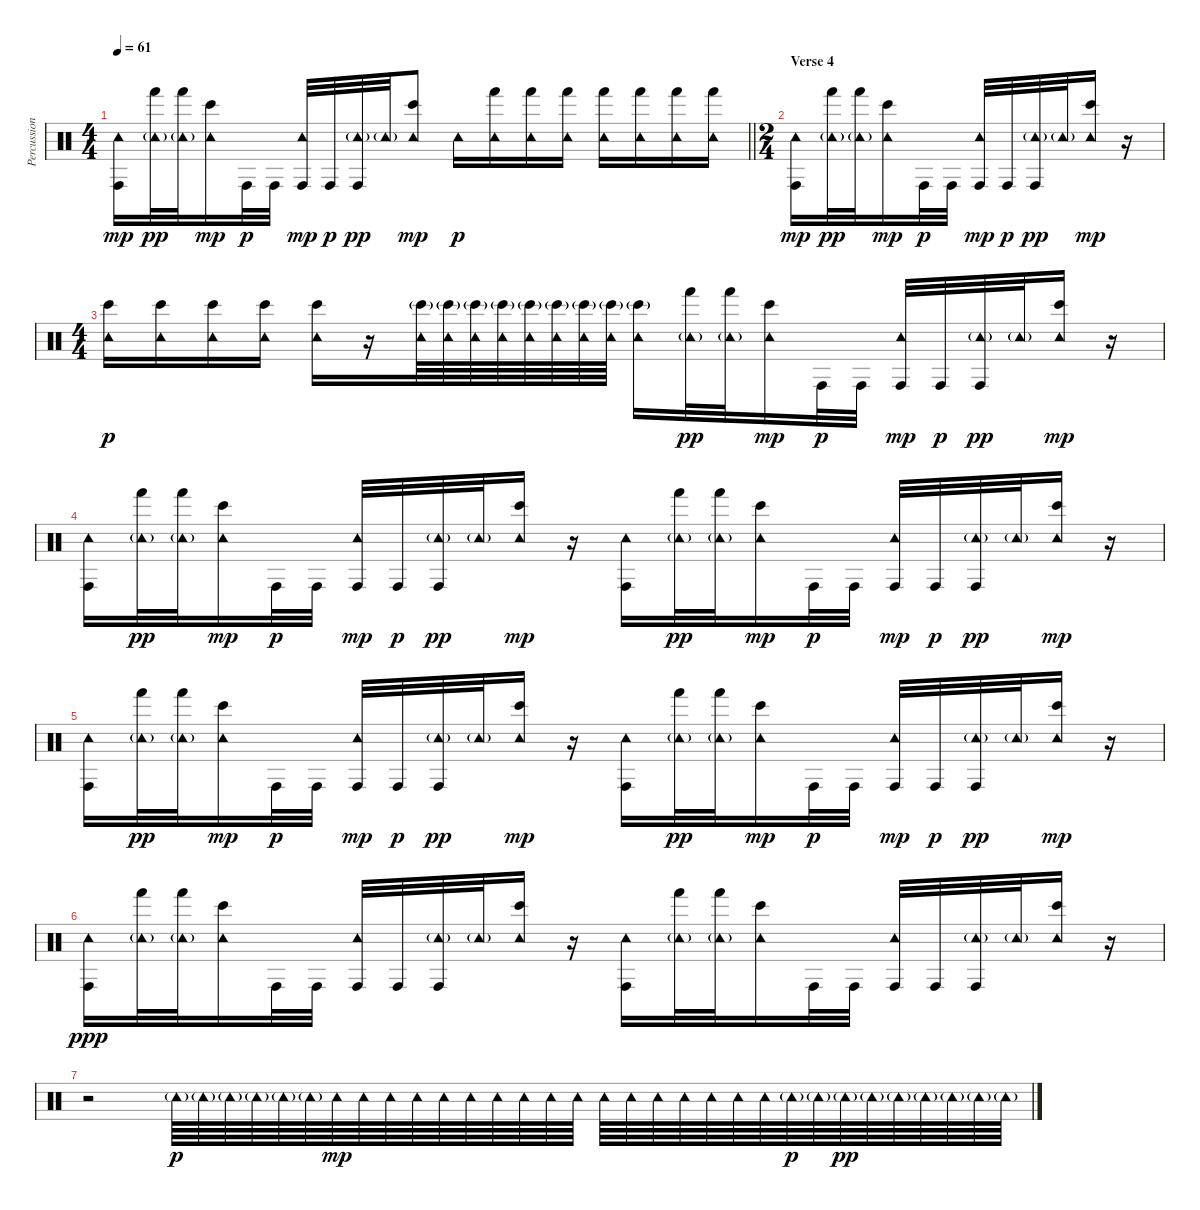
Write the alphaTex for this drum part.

\track ("Percussion 2" "Percussion") {instrument percussion}
\staff {score}
\articulation defaults
\ts (4 4)
\tempo 61
\clef neutral
\barLineRight lightlight
\ks c
("Conga high (hit)" "Tambourine (hit)").16{dy mp} ("Hand (hit)" "Tambourine (hit)"{g}).32{dy pp} ("Hand (hit)" "Tambourine (hit)"{g}).32 ("Bongo High (hit)" "Tambourine (hit)").16{dy mp} "Conga high (hit)".32{dy p} "Conga high (hit)".32 ("Conga high (hit)" "Tambourine (hit)").32{dy mp} "Conga high (hit)".32{dy p} ("Conga high (hit)" "Tambourine (hit)"{g}).32{dy pp} "Tambourine (hit)"{g}.32 ("Bongo High (hit)" "Tambourine (hit)").8{dy mp} "Tambourine (hit)".16{dy p} ("Hand (hit)" "Tambourine (hit)").16 ("Hand (hit)" "Tambourine (hit)").16 ("Hand (hit)" "Tambourine (hit)").16 ("Hand (hit)" "Tambourine (hit)").16 ("Hand (hit)" "Tambourine (hit)").16 ("Hand (hit)" "Tambourine (hit)").16 ("Hand (hit)" "Tambourine (hit)").16 |
\ts (2 4)
\section ("" "Verse 4")
("Conga high (hit)" "Tambourine (hit)").16{dy mp} ("Hand (hit)" "Tambourine (hit)"{g}).32{dy pp} ("Hand (hit)" "Tambourine (hit)"{g}).32 ("Bongo High (hit)" "Tambourine (hit)").16{dy mp} "Conga high (hit)".32{dy p} "Conga high (hit)".32 ("Conga high (hit)" "Tambourine (hit)").32{dy mp} "Conga high (hit)".32{dy p} ("Conga high (hit)" "Tambourine (hit)"{g}).32{dy pp} "Tambourine (hit)"{g}.32 ("Bongo High (hit)" "Tambourine (hit)").16{dy mp} r.16 |
\ts (4 4)
("Bongo High (hit)" "Tambourine (hit)").16{dy p} ("Bongo High (hit)" "Tambourine (hit)").16 ("Bongo High (hit)" "Tambourine (hit)").16 ("Bongo High (hit)" "Tambourine (hit)").16 ("Bongo High (hit)" "Tambourine (hit)").16 r.16 ("Bongo High (hit)"{g} "Tambourine (hit)").64 ("Bongo High (hit)"{g} "Tambourine (hit)").64 ("Bongo High (hit)"{g} "Tambourine (hit)").64 ("Bongo High (hit)"{g} "Tambourine (hit)").64 ("Bongo High (hit)"{g} "Tambourine (hit)").64 ("Bongo High (hit)"{g} "Tambourine (hit)").64 ("Bongo High (hit)"{g} "Tambourine (hit)").64 ("Bongo High (hit)"{g} "Tambourine (hit)").64 ("Bongo High (hit)"{g} "Tambourine (hit)").16 ("Hand (hit)" "Tambourine (hit)"{g}).32{dy pp} ("Hand (hit)" "Tambourine (hit)"{g}).32 ("Bongo High (hit)" "Tambourine (hit)").16{dy mp} "Conga high (hit)".32{dy p} "Conga high (hit)".32 ("Conga high (hit)" "Tambourine (hit)").32{dy mp} "Conga high (hit)".32{dy p} ("Conga high (hit)" "Tambourine (hit)"{g}).32{dy pp} "Tambourine (hit)"{g}.32 ("Bongo High (hit)" "Tambourine (hit)").16{dy mp} r.16 |
("Conga high (hit)" "Tambourine (hit)").16 ("Hand (hit)" "Tambourine (hit)"{g}).32{dy pp} ("Hand (hit)" "Tambourine (hit)"{g}).32 ("Bongo High (hit)" "Tambourine (hit)").16{dy mp} "Conga high (hit)".32{dy p} "Conga high (hit)".32 ("Conga high (hit)" "Tambourine (hit)").32{dy mp} "Conga high (hit)".32{dy p} ("Conga high (hit)" "Tambourine (hit)"{g}).32{dy pp} "Tambourine (hit)"{g}.32 ("Bongo High (hit)" "Tambourine (hit)").16{dy mp} r.16 ("Conga high (hit)" "Tambourine (hit)").16 ("Hand (hit)" "Tambourine (hit)"{g}).32{dy pp} ("Hand (hit)" "Tambourine (hit)"{g}).32 ("Bongo High (hit)" "Tambourine (hit)").16{dy mp} "Conga high (hit)".32{dy p} "Conga high (hit)".32 ("Conga high (hit)" "Tambourine (hit)").32{dy mp} "Conga high (hit)".32{dy p} ("Conga high (hit)" "Tambourine (hit)"{g}).32{dy pp} "Tambourine (hit)"{g}.32 ("Bongo High (hit)" "Tambourine (hit)").16{dy mp} r.16 |
("Conga high (hit)" "Tambourine (hit)").16 ("Hand (hit)" "Tambourine (hit)"{g}).32{dy pp} ("Hand (hit)" "Tambourine (hit)"{g}).32 ("Bongo High (hit)" "Tambourine (hit)").16{dy mp} "Conga high (hit)".32{dy p} "Conga high (hit)".32 ("Conga high (hit)" "Tambourine (hit)").32{dy mp} "Conga high (hit)".32{dy p} ("Conga high (hit)" "Tambourine (hit)"{g}).32{dy pp} "Tambourine (hit)"{g}.32 ("Bongo High (hit)" "Tambourine (hit)").16{dy mp} r.16 ("Conga high (hit)" "Tambourine (hit)").16 ("Hand (hit)" "Tambourine (hit)"{g}).32{dy pp} ("Hand (hit)" "Tambourine (hit)"{g}).32 ("Bongo High (hit)" "Tambourine (hit)").16{dy mp} "Conga high (hit)".32{dy p} "Conga high (hit)".32 ("Conga high (hit)" "Tambourine (hit)").32{dy mp} "Conga high (hit)".32{dy p} ("Conga high (hit)" "Tambourine (hit)"{g}).32{dy pp} "Tambourine (hit)"{g}.32 ("Bongo High (hit)" "Tambourine (hit)").16{dy mp} r.16 |
("Conga high (hit)" "Tambourine (hit)").16{dy ppp} ("Hand (hit)" "Tambourine (hit)"{g}).32 ("Hand (hit)" "Tambourine (hit)"{g}).32 ("Bongo High (hit)" "Tambourine (hit)").16 "Conga high (hit)".32 "Conga high (hit)".32 ("Conga high (hit)" "Tambourine (hit)").32 "Conga high (hit)".32 ("Conga high (hit)" "Tambourine (hit)"{g}).32 "Tambourine (hit)"{g}.32 ("Bongo High (hit)" "Tambourine (hit)").16 r.16 ("Conga high (hit)" "Tambourine (hit)").16 ("Hand (hit)" "Tambourine (hit)"{g}).32 ("Hand (hit)" "Tambourine (hit)"{g}).32 ("Bongo High (hit)" "Tambourine (hit)").16 "Conga high (hit)".32 "Conga high (hit)".32 ("Conga high (hit)" "Tambourine (hit)").32 "Conga high (hit)".32 ("Conga high (hit)" "Tambourine (hit)"{g}).32 "Tambourine (hit)"{g}.32 ("Bongo High (hit)" "Tambourine (hit)").16 r.16 |
r.2 "Tambourine (hit)"{g}.64{dy p volume 3} "Tambourine (hit)"{g}.64{volume 13} "Tambourine (hit)"{g}.64 "Tambourine (hit)"{g}.64 "Tambourine (hit)"{g}.64 "Tambourine (hit)"{g}.64 "Tambourine (hit)".64{dy mp} "Tambourine (hit)".64 "Tambourine (hit)".64 "Tambourine (hit)".64 "Tambourine (hit)".64 "Tambourine (hit)".64 "Tambourine (hit)".64 "Tambourine (hit)".64 "Tambourine (hit)".64 "Tambourine (hit)".64 "Tambourine (hit)".64 "Tambourine (hit)".64 "Tambourine (hit)".64 "Tambourine (hit)".64 "Tambourine (hit)".64 "Tambourine (hit)".64 "Tambourine (hit)".64 "Tambourine (hit)"{g}.64{dy p volume 0} "Tambourine (hit)"{g}.64 "Tambourine (hit)"{g}.64{dy pp} "Tambourine (hit)"{g}.64 "Tambourine (hit)"{g}.64 "Tambourine (hit)"{g}.64 "Tambourine (hit)"{g}.64 "Tambourine (hit)"{g}.64 "Tambourine (hit)"{g}.64
